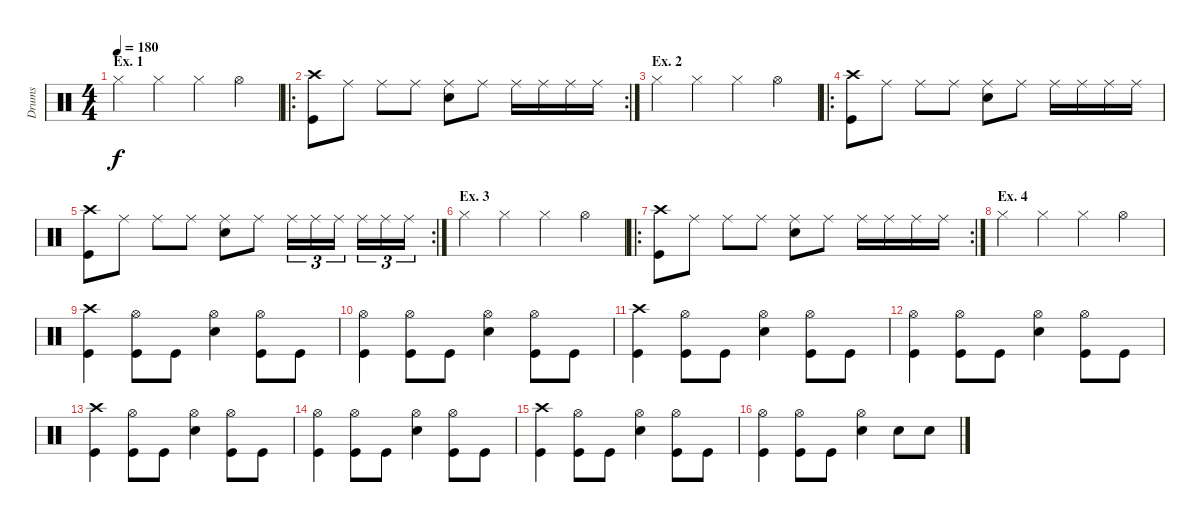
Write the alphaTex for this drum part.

\track ("Drums" "Drums") {instrument percussion}
\staff {score}
\articulation defaults
\ts (4 4)
\section ("" "Ex. 1")
\tempo 180
\clef neutral
\ks c "Hi-Hat (closed)".4{dy f} "Hi-Hat (closed)".4 "Hi-Hat (closed)".4 "Hi-Hat (open)".4
|
\ro
\rc 2
("Crash high (hit)" "Kick (hit)").8 "Ride (middle)".8 "Ride (middle)".8 "Ride (middle)".8 ("Ride (middle)" "Snare (hit) 2").8 "Ride (middle)".8 "Ride (middle)".16 "Ride (middle)".16 "Ride (middle)".16 "Ride (middle)".16 |
\section ("" "Ex. 2")
"Hi-Hat (closed)".4 "Hi-Hat (closed)".4 "Hi-Hat (closed)".4 "Hi-Hat (open)".4 |
\ro
("Crash high (hit)" "Kick (hit)").8 "Ride (middle)".8 "Ride (middle)".8 "Ride (middle)".8 ("Ride (middle)" "Snare (hit) 2").8 "Ride (middle)".8 "Ride (middle)".16 "Ride (middle)".16 "Ride (middle)".16 "Ride (middle)".16 |
\rc 2
("Crash high (hit)" "Kick (hit)").8 "Ride (middle)".8 "Ride (middle)".8 "Ride (middle)".8 ("Ride (middle)" "Snare (hit) 2").8 "Ride (middle)".8 "Ride (middle)".16{tu (3 2)} "Ride (middle)".16{tu (3 2)} "Ride (middle)".16{tu (3 2)} "Ride (middle)".16{tu (3 2)} "Ride (middle)".16{tu (3 2)} "Ride (middle)".16{tu (3 2)} |
\section ("" "Ex. 3")
"Hi-Hat (closed)".4 "Hi-Hat (closed)".4 "Hi-Hat (closed)".4 "Hi-Hat (open)".4 |
\ro
\rc 2
("Crash high (hit)" "Kick (hit)").8 "Ride (middle)".8 "Ride (middle)".8 "Ride (middle)".8 ("Ride (middle)" "Snare (hit) 2").8 "Ride (middle)".8 "Ride (middle)".16 "Ride (middle)".16 "Ride (middle)".16 "Ride (middle)".16 |
\section ("" "Ex. 4")
"Hi-Hat (closed)".4 "Hi-Hat (closed)".4 "Hi-Hat (closed)".4 "Hi-Hat (open)".4 |
("Crash high (hit)" "Kick (hit)").4 ("Hi-Hat (open)" "Kick (hit)").8 "Kick (hit)".8 ("Hi-Hat (open)" "Snare (hit) 2").4 ("Hi-Hat (open)" "Kick (hit)").8 "Kick (hit)".8 |
("Hi-Hat (open)" "Kick (hit)").4 ("Hi-Hat (open)" "Kick (hit)").8 "Kick (hit)".8 ("Hi-Hat (open)" "Snare (hit) 2").4 ("Hi-Hat (open)" "Kick (hit)").8 "Kick (hit)".8 |
("Crash high (hit)" "Kick (hit)").4 ("Hi-Hat (open)" "Kick (hit)").8 "Kick (hit)".8 ("Hi-Hat (open)" "Snare (hit) 2").4 ("Hi-Hat (open)" "Kick (hit)").8 "Kick (hit)".8 |
("Hi-Hat (open)" "Kick (hit)").4 ("Hi-Hat (open)" "Kick (hit)").8 "Kick (hit)".8 ("Hi-Hat (open)" "Snare (hit) 2").4 ("Hi-Hat (open)" "Kick (hit)").8 "Kick (hit)".8 |
("Crash high (hit)" "Kick (hit)").4 ("Hi-Hat (open)" "Kick (hit)").8 "Kick (hit)".8 ("Hi-Hat (open)" "Snare (hit) 2").4 ("Hi-Hat (open)" "Kick (hit)").8 "Kick (hit)".8 |
("Hi-Hat (open)" "Kick (hit)").4 ("Hi-Hat (open)" "Kick (hit)").8 "Kick (hit)".8 ("Hi-Hat (open)" "Snare (hit) 2").4 ("Hi-Hat (open)" "Kick (hit)").8 "Kick (hit)".8 |
("Crash high (hit)" "Kick (hit)").4 ("Hi-Hat (open)" "Kick (hit)").8 "Kick (hit)".8 ("Hi-Hat (open)" "Snare (hit) 2").4 ("Hi-Hat (open)" "Kick (hit)").8 "Kick (hit)".8 |
("Hi-Hat (open)" "Kick (hit)").4 ("Hi-Hat (open)" "Kick (hit)").8 "Kick (hit)".8 ("Hi-Hat (open)" "Snare (hit) 2").4 "Snare (hit) 2".8 "Snare (hit) 2".8
